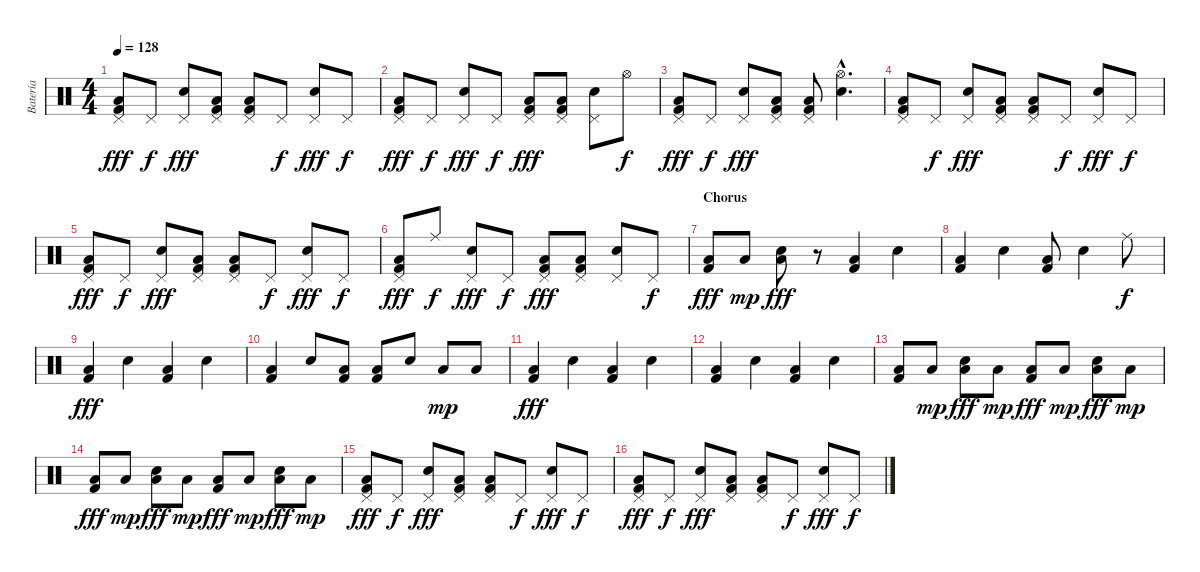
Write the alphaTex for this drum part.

\track ("Batería" "Batería") {instrument percussion}
\staff {score}
\articulation defaults
\ts (4 4)
\tempo 128
\clef neutral
\ks c
("Low Floor Tom (hit)" "Kick (hit) 2" "Pedal Hi-Hat (hit)").8{dy fff} "Pedal Hi-Hat (hit)".8{dy f} ("Electric Snare (hit)" "Pedal Hi-Hat (hit)").8{dy fff} ("Low Floor Tom (hit)" "Kick (hit) 2" "Pedal Hi-Hat (hit)").8 ("Low Floor Tom (hit)" "Kick (hit) 2" "Pedal Hi-Hat (hit)").8 "Pedal Hi-Hat (hit)".8{dy f} ("Electric Snare (hit)" "Pedal Hi-Hat (hit)").8{dy fff} "Pedal Hi-Hat (hit)".8{dy f} |
("Low Floor Tom (hit)" "Kick (hit) 2" "Pedal Hi-Hat (hit)").8{dy fff} "Pedal Hi-Hat (hit)".8{dy f} ("Electric Snare (hit)" "Pedal Hi-Hat (hit)").8{dy fff} "Pedal Hi-Hat (hit)".8{dy f} ("Low Floor Tom (hit)" "Kick (hit) 2" "Pedal Hi-Hat (hit)").8{dy fff} ("Low Floor Tom (hit)" "Kick (hit) 2" "Pedal Hi-Hat (hit)").8 ("Electric Snare (hit)" "Pedal Hi-Hat (hit)").8 "Hi-Hat (open)".8{dy f} |
("Low Floor Tom (hit)" "Kick (hit) 2" "Pedal Hi-Hat (hit)").8{dy fff} "Pedal Hi-Hat (hit)".8{dy f} ("Electric Snare (hit)" "Pedal Hi-Hat (hit)").8{dy fff} ("Low Floor Tom (hit)" "Kick (hit) 2" "Pedal Hi-Hat (hit)").8 ("Low Floor Tom (hit)" "Kick (hit) 2" "Pedal Hi-Hat (hit)").8 ("Electric Snare (hit)"{hac} "Hi-Hat (open)"{hac}).4{d} |
("Low Floor Tom (hit)" "Kick (hit) 2" "Pedal Hi-Hat (hit)").8 "Pedal Hi-Hat (hit)".8{dy f} ("Electric Snare (hit)" "Pedal Hi-Hat (hit)").8{dy fff} ("Low Floor Tom (hit)" "Kick (hit) 2" "Pedal Hi-Hat (hit)").8 ("Low Floor Tom (hit)" "Kick (hit) 2" "Pedal Hi-Hat (hit)").8 "Pedal Hi-Hat (hit)".8{dy f} ("Electric Snare (hit)" "Pedal Hi-Hat (hit)").8{dy fff} "Pedal Hi-Hat (hit)".8{dy f} |
("Low Floor Tom (hit)" "Kick (hit) 2" "Pedal Hi-Hat (hit)").8{dy fff} "Pedal Hi-Hat (hit)".8{dy f} ("Electric Snare (hit)" "Pedal Hi-Hat (hit)").8{dy fff} ("Low Floor Tom (hit)" "Kick (hit) 2" "Pedal Hi-Hat (hit)").8 ("Low Floor Tom (hit)" "Kick (hit) 2" "Pedal Hi-Hat (hit)").8 "Pedal Hi-Hat (hit)".8{dy f} ("Electric Snare (hit)" "Pedal Hi-Hat (hit)").8{dy fff} "Pedal Hi-Hat (hit)".8{dy f} |
("Low Floor Tom (hit)" "Kick (hit) 2" "Pedal Hi-Hat (hit)").8{dy fff} "Ride (middle)".8{dy f} ("Electric Snare (hit)" "Pedal Hi-Hat (hit)").8{dy fff} "Pedal Hi-Hat (hit)".8{dy f} ("Low Floor Tom (hit)" "Kick (hit) 2" "Pedal Hi-Hat (hit)").8{dy fff} ("Low Floor Tom (hit)" "Kick (hit) 2" "Pedal Hi-Hat (hit)").8 ("Electric Snare (hit)" "Pedal Hi-Hat (hit)").8 "Pedal Hi-Hat (hit)".8{dy f} |
\section ("" "Chorus")
("Low Floor Tom (hit)" "Kick (hit) 2").8{dy fff} "Low Floor Tom (hit)".8{dy mp} ("Low Floor Tom (hit)" "Electric Snare (hit)").8{dy fff} r.8 ("Low Floor Tom (hit)" "Kick (hit) 2").4 "Electric Snare (hit)".4 |
("Low Floor Tom (hit)" "Kick (hit) 2").4 "Electric Snare (hit)".4 ("Low Floor Tom (hit)" "Kick (hit) 2").8 "Electric Snare (hit)".4 "Ride (middle)".8{dy f} |
("Low Floor Tom (hit)" "Kick (hit) 2").4{dy fff} "Electric Snare (hit)".4 ("Low Floor Tom (hit)" "Kick (hit) 2").4 "Electric Snare (hit)".4 |
("Low Floor Tom (hit)" "Kick (hit) 2").4 "Electric Snare (hit)".8 ("Low Floor Tom (hit)" "Kick (hit) 2").8 ("Low Floor Tom (hit)" "Kick (hit) 2").8 "Electric Snare (hit)".8 "Low Floor Tom (hit)".8{dy mp} "Low Floor Tom (hit)".8 |
("Low Floor Tom (hit)" "Kick (hit) 2").4{dy fff} "Electric Snare (hit)".4 ("Low Floor Tom (hit)" "Kick (hit) 2").4 "Electric Snare (hit)".4 |
("Low Floor Tom (hit)" "Kick (hit) 2").4 "Electric Snare (hit)".4 ("Low Floor Tom (hit)" "Kick (hit) 2").4 "Electric Snare (hit)".4 |
("Low Floor Tom (hit)" "Kick (hit) 2").8 "Low Floor Tom (hit)".8{dy mp} ("Low Floor Tom (hit)" "Electric Snare (hit)").8{dy fff} "Low Floor Tom (hit)".8{dy mp} ("Low Floor Tom (hit)" "Kick (hit) 2").8{dy fff} "Low Floor Tom (hit)".8{dy mp} ("Low Floor Tom (hit)" "Electric Snare (hit)").8{dy fff} "Low Floor Tom (hit)".8{dy mp} |
("Low Floor Tom (hit)" "Kick (hit) 2").8{dy fff} "Low Floor Tom (hit)".8{dy mp} ("Low Floor Tom (hit)" "Electric Snare (hit)").8{dy fff} "Low Floor Tom (hit)".8{dy mp} ("Low Floor Tom (hit)" "Kick (hit) 2").8{dy fff} "Low Floor Tom (hit)".8{dy mp} ("Low Floor Tom (hit)" "Electric Snare (hit)").8{dy fff} "Low Floor Tom (hit)".8{dy mp} |
("Low Floor Tom (hit)" "Kick (hit) 2" "Pedal Hi-Hat (hit)").8{dy fff} "Pedal Hi-Hat (hit)".8{dy f} ("Electric Snare (hit)" "Pedal Hi-Hat (hit)").8{dy fff} ("Low Floor Tom (hit)" "Kick (hit) 2" "Pedal Hi-Hat (hit)").8 ("Low Floor Tom (hit)" "Kick (hit) 2" "Pedal Hi-Hat (hit)").8 "Pedal Hi-Hat (hit)".8{dy f} ("Electric Snare (hit)" "Pedal Hi-Hat (hit)").8{dy fff} "Pedal Hi-Hat (hit)".8{dy f} |
("Low Floor Tom (hit)" "Kick (hit) 2" "Pedal Hi-Hat (hit)").8{dy fff} "Pedal Hi-Hat (hit)".8{dy f} ("Electric Snare (hit)" "Pedal Hi-Hat (hit)").8{dy fff} ("Low Floor Tom (hit)" "Kick (hit) 2" "Pedal Hi-Hat (hit)").8 ("Low Floor Tom (hit)" "Kick (hit) 2" "Pedal Hi-Hat (hit)").8 "Pedal Hi-Hat (hit)".8{dy f} ("Electric Snare (hit)" "Pedal Hi-Hat (hit)").8{dy fff} "Pedal Hi-Hat (hit)".8{dy f}
